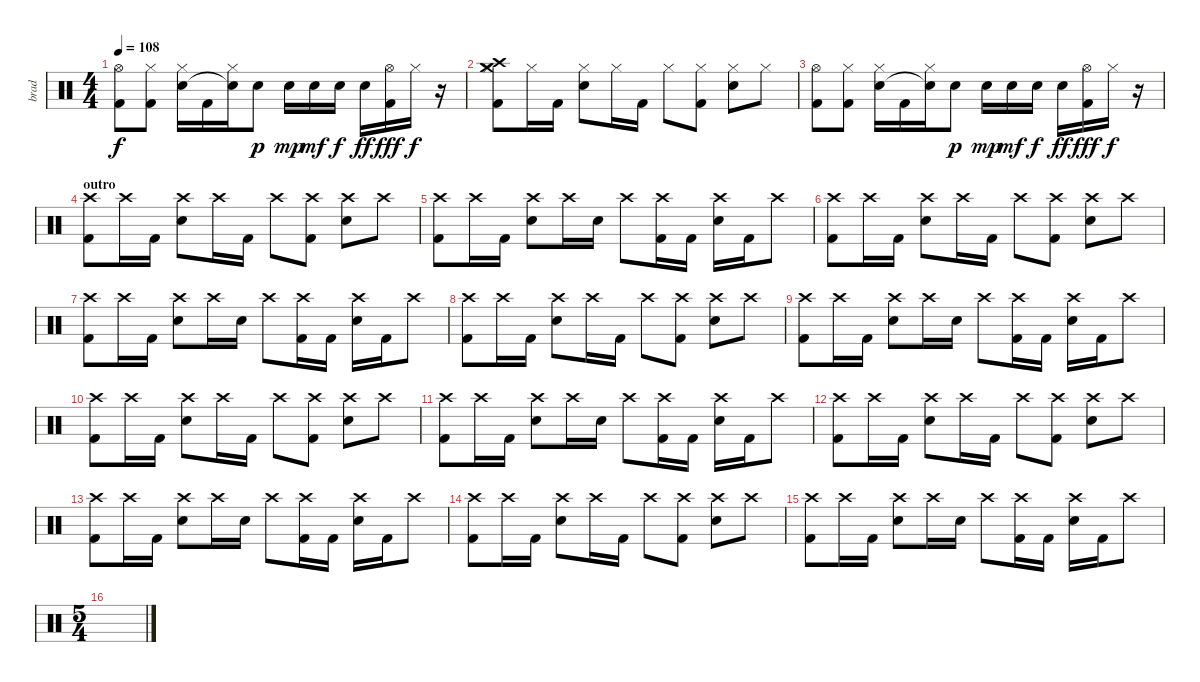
\track ("brad" "brad") {instrument percussion}
\staff {score}
\articulation defaults
\ts (4 4)
\tempo 108
\clef neutral
\ks c
("Hi-Hat (open)" "Kick (hit) 2").8{dy f} ("Hi-Hat (closed)" "Kick (hit) 2").8 ("Hi-Hat (closed)" "Electric Snare (hit)").16 "Kick (hit) 2".16 ("Hi-Hat (closed)" "Snare (hit)"{t}).16 "Electric Snare (hit)".8{dy p} "Electric Snare (hit)".16{dy mp} "Electric Snare (hit)".16{dy mf} "Electric Snare (hit)".16{dy f} "Electric Snare (hit)".16{dy ff} ("Hi-Hat (open)" "Kick (hit) 2").16{dy fff} "Hi-Hat (closed)".16{dy f} r.16 |
("Crash medium (hit)" "Crash high (hit)" "Hi-Hat (closed)" "Kick (hit) 2").8 "Hi-Hat (closed)".16 "Kick (hit) 2".16 ("Hi-Hat (closed)" "Electric Snare (hit)").8 "Hi-Hat (closed)".16 "Kick (hit) 2".16 "Hi-Hat (closed)".8 ("Hi-Hat (closed)" "Kick (hit) 2").8 ("Hi-Hat (closed)" "Electric Snare (hit)").8 "Hi-Hat (closed)".8 |
("Hi-Hat (open)" "Kick (hit) 2").8 ("Hi-Hat (closed)" "Kick (hit) 2").8 ("Hi-Hat (closed)" "Electric Snare (hit)").16 "Kick (hit) 2".16 ("Hi-Hat (closed)" "Snare (hit)"{t}).16 "Electric Snare (hit)".8{dy p} "Electric Snare (hit)".16{dy mp} "Electric Snare (hit)".16{dy mf} "Electric Snare (hit)".16{dy f} "Electric Snare (hit)".16{dy ff} ("Hi-Hat (open)" "Kick (hit) 2").16{dy fff} "Hi-Hat (closed)".16{dy f} r.16 |
\section ("" "outro")
("Crash high (hit)" "Kick (hit) 2").8 "Crash high (hit)".16 "Kick (hit) 2".16 ("Crash high (hit)" "Electric Snare (hit)").8 "Crash high (hit)".16 "Kick (hit) 2".16 "Crash high (hit)".8 ("Crash high (hit)" "Kick (hit) 2").8 ("Crash high (hit)" "Electric Snare (hit)").8 "Crash high (hit)".8 |
("Crash high (hit)" "Kick (hit) 2").8 "Crash high (hit)".16 "Kick (hit) 2".16 ("Crash high (hit)" "Electric Snare (hit)").8 "Crash high (hit)".16 "Electric Snare (hit)".16 "Crash high (hit)".8 ("Crash high (hit)" "Kick (hit) 2").16 "Kick (hit) 2".16 ("Crash high (hit)" "Electric Snare (hit)").16 "Kick (hit) 2".16 "Crash high (hit)".8 |
("Crash high (hit)" "Kick (hit) 2").8 "Crash high (hit)".16 "Kick (hit) 2".16 ("Crash high (hit)" "Electric Snare (hit)").8 "Crash high (hit)".16 "Kick (hit) 2".16 "Crash high (hit)".8 ("Crash high (hit)" "Kick (hit) 2").8 ("Crash high (hit)" "Electric Snare (hit)").8 "Crash high (hit)".8 |
("Crash high (hit)" "Kick (hit) 2").8 "Crash high (hit)".16 "Kick (hit) 2".16 ("Crash high (hit)" "Electric Snare (hit)").8 "Crash high (hit)".16 "Electric Snare (hit)".16 "Crash high (hit)".8 ("Crash high (hit)" "Kick (hit) 2").16 "Kick (hit) 2".16 ("Crash high (hit)" "Electric Snare (hit)").16 "Kick (hit) 2".16 "Crash high (hit)".8 |
("Crash high (hit)" "Kick (hit) 2").8 "Crash high (hit)".16 "Kick (hit) 2".16 ("Crash high (hit)" "Electric Snare (hit)").8 "Crash high (hit)".16 "Kick (hit) 2".16 "Crash high (hit)".8 ("Crash high (hit)" "Kick (hit) 2").8 ("Crash high (hit)" "Electric Snare (hit)").8 "Crash high (hit)".8 |
("Crash high (hit)" "Kick (hit) 2").8 "Crash high (hit)".16 "Kick (hit) 2".16 ("Crash high (hit)" "Electric Snare (hit)").8 "Crash high (hit)".16 "Electric Snare (hit)".16 "Crash high (hit)".8 ("Crash high (hit)" "Kick (hit) 2").16 "Kick (hit) 2".16 ("Crash high (hit)" "Electric Snare (hit)").16 "Kick (hit) 2".16 "Crash high (hit)".8 |
("Crash high (hit)" "Kick (hit) 2").8 "Crash high (hit)".16 "Kick (hit) 2".16 ("Crash high (hit)" "Electric Snare (hit)").8 "Crash high (hit)".16 "Kick (hit) 2".16 "Crash high (hit)".8 ("Crash high (hit)" "Kick (hit) 2").8 ("Crash high (hit)" "Electric Snare (hit)").8 "Crash high (hit)".8 |
("Crash high (hit)" "Kick (hit) 2").8 "Crash high (hit)".16 "Kick (hit) 2".16 ("Crash high (hit)" "Electric Snare (hit)").8 "Crash high (hit)".16 "Electric Snare (hit)".16 "Crash high (hit)".8 ("Crash high (hit)" "Kick (hit) 2").16 "Kick (hit) 2".16 ("Crash high (hit)" "Electric Snare (hit)").16 "Kick (hit) 2".16 "Crash high (hit)".8 |
("Crash high (hit)" "Kick (hit) 2").8 "Crash high (hit)".16 "Kick (hit) 2".16 ("Crash high (hit)" "Electric Snare (hit)").8 "Crash high (hit)".16 "Kick (hit) 2".16 "Crash high (hit)".8 ("Crash high (hit)" "Kick (hit) 2").8 ("Crash high (hit)" "Electric Snare (hit)").8 "Crash high (hit)".8 |
("Crash high (hit)" "Kick (hit) 2").8 "Crash high (hit)".16 "Kick (hit) 2".16 ("Crash high (hit)" "Electric Snare (hit)").8 "Crash high (hit)".16 "Electric Snare (hit)".16 "Crash high (hit)".8 ("Crash high (hit)" "Kick (hit) 2").16 "Kick (hit) 2".16 ("Crash high (hit)" "Electric Snare (hit)").16 "Kick (hit) 2".16 "Crash high (hit)".8 |
("Crash high (hit)" "Kick (hit) 2").8 "Crash high (hit)".16 "Kick (hit) 2".16 ("Crash high (hit)" "Electric Snare (hit)").8 "Crash high (hit)".16 "Kick (hit) 2".16 "Crash high (hit)".8 ("Crash high (hit)" "Kick (hit) 2").8 ("Crash high (hit)" "Electric Snare (hit)").8 "Crash high (hit)".8 |
("Crash high (hit)" "Kick (hit) 2").8 "Crash high (hit)".16 "Kick (hit) 2".16 ("Crash high (hit)" "Electric Snare (hit)").8 "Crash high (hit)".16 "Electric Snare (hit)".16 "Crash high (hit)".8 ("Crash high (hit)" "Kick (hit) 2").16 "Kick (hit) 2".16 ("Crash high (hit)" "Electric Snare (hit)").16 "Kick (hit) 2".16 "Crash high (hit)".8 |
\ts (5 4)
